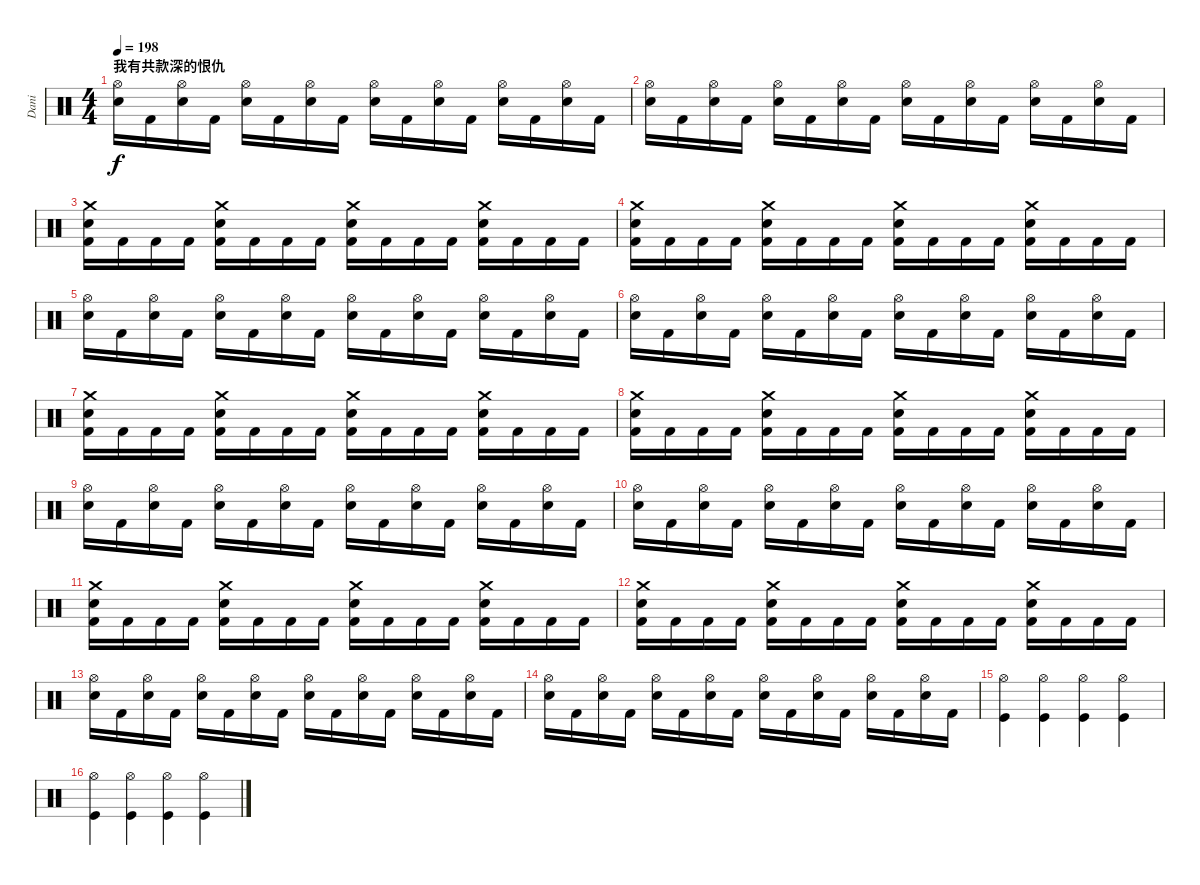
\track ("Dani" "Dani") {instrument percussion}
\staff {score}
\articulation defaults
\ts (4 4)
\section ("" "我有共款深的恨仇")
\tempo 198
\clef neutral
\ks c
("Hi-Hat (open)" "Electric Snare (hit)").16{dy f} "Kick (hit) 2".16 ("Hi-Hat (open)" "Electric Snare (hit)").16 "Kick (hit) 2".16 ("Hi-Hat (open)" "Electric Snare (hit)").16 "Kick (hit) 2".16 ("Hi-Hat (open)" "Electric Snare (hit)").16 "Kick (hit) 2".16 ("Hi-Hat (open)" "Electric Snare (hit)").16 "Kick (hit) 2".16 ("Hi-Hat (open)" "Electric Snare (hit)").16 "Kick (hit) 2".16 ("Hi-Hat (open)" "Electric Snare (hit)").16 "Kick (hit) 2".16 ("Hi-Hat (open)" "Electric Snare (hit)").16 "Kick (hit) 2".16 |
("Hi-Hat (open)" "Electric Snare (hit)").16 "Kick (hit) 2".16 ("Hi-Hat (open)" "Electric Snare (hit)").16 "Kick (hit) 2".16 ("Hi-Hat (open)" "Electric Snare (hit)").16 "Kick (hit) 2".16 ("Hi-Hat (open)" "Electric Snare (hit)").16 "Kick (hit) 2".16 ("Hi-Hat (open)" "Electric Snare (hit)").16 "Kick (hit) 2".16 ("Hi-Hat (open)" "Electric Snare (hit)").16 "Kick (hit) 2".16 ("Hi-Hat (open)" "Electric Snare (hit)").16 "Kick (hit) 2".16 ("Hi-Hat (open)" "Electric Snare (hit)").16 "Kick (hit) 2".16 |
("Crash medium (hit)" "Kick (hit) 2" "Electric Snare (hit)").16 "Kick (hit) 2".16 "Kick (hit) 2".16 "Kick (hit) 2".16 ("Electric Snare (hit)" "Kick (hit) 2" "Crash medium (hit)").16 "Kick (hit) 2".16 "Kick (hit) 2".16 "Kick (hit) 2".16 ("Crash medium (hit)" "Kick (hit) 2" "Electric Snare (hit)").16 "Kick (hit) 2".16 "Kick (hit) 2".16 "Kick (hit) 2".16 ("Crash medium (hit)" "Kick (hit) 2" "Electric Snare (hit)").16 "Kick (hit) 2".16 "Kick (hit) 2".16 "Kick (hit) 2".16 |
("Crash medium (hit)" "Kick (hit) 2" "Electric Snare (hit)").16 "Kick (hit) 2".16 "Kick (hit) 2".16 "Kick (hit) 2".16 ("Electric Snare (hit)" "Kick (hit) 2" "Crash medium (hit)").16 "Kick (hit) 2".16 "Kick (hit) 2".16 "Kick (hit) 2".16 ("Crash medium (hit)" "Kick (hit) 2" "Electric Snare (hit)").16 "Kick (hit) 2".16 "Kick (hit) 2".16 "Kick (hit) 2".16 ("Crash medium (hit)" "Kick (hit) 2" "Electric Snare (hit)").16 "Kick (hit) 2".16 "Kick (hit) 2".16 "Kick (hit) 2".16 |
("Hi-Hat (open)" "Electric Snare (hit)").16 "Kick (hit) 2".16 ("Hi-Hat (open)" "Electric Snare (hit)").16 "Kick (hit) 2".16 ("Hi-Hat (open)" "Electric Snare (hit)").16 "Kick (hit) 2".16 ("Hi-Hat (open)" "Electric Snare (hit)").16 "Kick (hit) 2".16 ("Hi-Hat (open)" "Electric Snare (hit)").16 "Kick (hit) 2".16 ("Hi-Hat (open)" "Electric Snare (hit)").16 "Kick (hit) 2".16 ("Hi-Hat (open)" "Electric Snare (hit)").16 "Kick (hit) 2".16 ("Hi-Hat (open)" "Electric Snare (hit)").16 "Kick (hit) 2".16 |
("Hi-Hat (open)" "Electric Snare (hit)").16 "Kick (hit) 2".16 ("Hi-Hat (open)" "Electric Snare (hit)").16 "Kick (hit) 2".16 ("Hi-Hat (open)" "Electric Snare (hit)").16 "Kick (hit) 2".16 ("Hi-Hat (open)" "Electric Snare (hit)").16 "Kick (hit) 2".16 ("Hi-Hat (open)" "Electric Snare (hit)").16 "Kick (hit) 2".16 ("Hi-Hat (open)" "Electric Snare (hit)").16 "Kick (hit) 2".16 ("Hi-Hat (open)" "Electric Snare (hit)").16 "Kick (hit) 2".16 ("Hi-Hat (open)" "Electric Snare (hit)").16 "Kick (hit) 2".16 |
("Crash medium (hit)" "Kick (hit) 2" "Electric Snare (hit)").16 "Kick (hit) 2".16 "Kick (hit) 2".16 "Kick (hit) 2".16 ("Electric Snare (hit)" "Kick (hit) 2" "Crash medium (hit)").16 "Kick (hit) 2".16 "Kick (hit) 2".16 "Kick (hit) 2".16 ("Crash medium (hit)" "Kick (hit) 2" "Electric Snare (hit)").16 "Kick (hit) 2".16 "Kick (hit) 2".16 "Kick (hit) 2".16 ("Crash medium (hit)" "Kick (hit) 2" "Electric Snare (hit)").16 "Kick (hit) 2".16 "Kick (hit) 2".16 "Kick (hit) 2".16 |
("Crash medium (hit)" "Kick (hit) 2" "Electric Snare (hit)").16 "Kick (hit) 2".16 "Kick (hit) 2".16 "Kick (hit) 2".16 ("Electric Snare (hit)" "Kick (hit) 2" "Crash medium (hit)").16 "Kick (hit) 2".16 "Kick (hit) 2".16 "Kick (hit) 2".16 ("Crash medium (hit)" "Kick (hit) 2" "Electric Snare (hit)").16 "Kick (hit) 2".16 "Kick (hit) 2".16 "Kick (hit) 2".16 ("Crash medium (hit)" "Kick (hit) 2" "Electric Snare (hit)").16 "Kick (hit) 2".16 "Kick (hit) 2".16 "Kick (hit) 2".16 |
("Hi-Hat (open)" "Electric Snare (hit)").16 "Kick (hit) 2".16 ("Hi-Hat (open)" "Electric Snare (hit)").16 "Kick (hit) 2".16 ("Hi-Hat (open)" "Electric Snare (hit)").16 "Kick (hit) 2".16 ("Hi-Hat (open)" "Electric Snare (hit)").16 "Kick (hit) 2".16 ("Hi-Hat (open)" "Electric Snare (hit)").16 "Kick (hit) 2".16 ("Hi-Hat (open)" "Electric Snare (hit)").16 "Kick (hit) 2".16 ("Hi-Hat (open)" "Electric Snare (hit)").16 "Kick (hit) 2".16 ("Hi-Hat (open)" "Electric Snare (hit)").16 "Kick (hit) 2".16 |
("Hi-Hat (open)" "Electric Snare (hit)").16 "Kick (hit) 2".16 ("Hi-Hat (open)" "Electric Snare (hit)").16 "Kick (hit) 2".16 ("Hi-Hat (open)" "Electric Snare (hit)").16 "Kick (hit) 2".16 ("Hi-Hat (open)" "Electric Snare (hit)").16 "Kick (hit) 2".16 ("Hi-Hat (open)" "Electric Snare (hit)").16 "Kick (hit) 2".16 ("Hi-Hat (open)" "Electric Snare (hit)").16 "Kick (hit) 2".16 ("Hi-Hat (open)" "Electric Snare (hit)").16 "Kick (hit) 2".16 ("Hi-Hat (open)" "Electric Snare (hit)").16 "Kick (hit) 2".16 |
("Crash medium (hit)" "Kick (hit) 2" "Electric Snare (hit)").16 "Kick (hit) 2".16 "Kick (hit) 2".16 "Kick (hit) 2".16 ("Electric Snare (hit)" "Kick (hit) 2" "Crash medium (hit)").16 "Kick (hit) 2".16 "Kick (hit) 2".16 "Kick (hit) 2".16 ("Crash medium (hit)" "Kick (hit) 2" "Electric Snare (hit)").16 "Kick (hit) 2".16 "Kick (hit) 2".16 "Kick (hit) 2".16 ("Crash medium (hit)" "Kick (hit) 2" "Electric Snare (hit)").16 "Kick (hit) 2".16 "Kick (hit) 2".16 "Kick (hit) 2".16 |
("Crash medium (hit)" "Kick (hit) 2" "Electric Snare (hit)").16 "Kick (hit) 2".16 "Kick (hit) 2".16 "Kick (hit) 2".16 ("Electric Snare (hit)" "Kick (hit) 2" "Crash medium (hit)").16 "Kick (hit) 2".16 "Kick (hit) 2".16 "Kick (hit) 2".16 ("Crash medium (hit)" "Kick (hit) 2" "Electric Snare (hit)").16 "Kick (hit) 2".16 "Kick (hit) 2".16 "Kick (hit) 2".16 ("Crash medium (hit)" "Kick (hit) 2" "Electric Snare (hit)").16 "Kick (hit) 2".16 "Kick (hit) 2".16 "Kick (hit) 2".16 |
("Hi-Hat (open)" "Electric Snare (hit)").16 "Kick (hit) 2".16 ("Hi-Hat (open)" "Electric Snare (hit)").16 "Kick (hit) 2".16 ("Hi-Hat (open)" "Electric Snare (hit)").16 "Kick (hit) 2".16 ("Hi-Hat (open)" "Electric Snare (hit)").16 "Kick (hit) 2".16 ("Hi-Hat (open)" "Electric Snare (hit)").16 "Kick (hit) 2".16 ("Hi-Hat (open)" "Electric Snare (hit)").16 "Kick (hit) 2".16 ("Hi-Hat (open)" "Electric Snare (hit)").16 "Kick (hit) 2".16 ("Hi-Hat (open)" "Electric Snare (hit)").16 "Kick (hit) 2".16 |
("Hi-Hat (open)" "Electric Snare (hit)").16 "Kick (hit) 2".16 ("Hi-Hat (open)" "Electric Snare (hit)").16 "Kick (hit) 2".16 ("Hi-Hat (open)" "Electric Snare (hit)").16 "Kick (hit) 2".16 ("Hi-Hat (open)" "Electric Snare (hit)").16 "Kick (hit) 2".16 ("Hi-Hat (open)" "Electric Snare (hit)").16 "Kick (hit) 2".16 ("Hi-Hat (open)" "Electric Snare (hit)").16 "Kick (hit) 2".16 ("Hi-Hat (open)" "Electric Snare (hit)").16 "Kick (hit) 2".16 ("Hi-Hat (open)" "Electric Snare (hit)").16 "Kick (hit) 2".16 |
("Hi-Hat (open)" "Kick (hit)").4 ("Hi-Hat (open)" "Kick (hit)").4 ("Hi-Hat (open)" "Kick (hit)").4 ("Hi-Hat (open)" "Kick (hit)").4 |
("Hi-Hat (open)" "Kick (hit)").4 ("Hi-Hat (open)" "Kick (hit)").4 ("Hi-Hat (open)" "Kick (hit)").4 ("Hi-Hat (open)" "Kick (hit)").4
